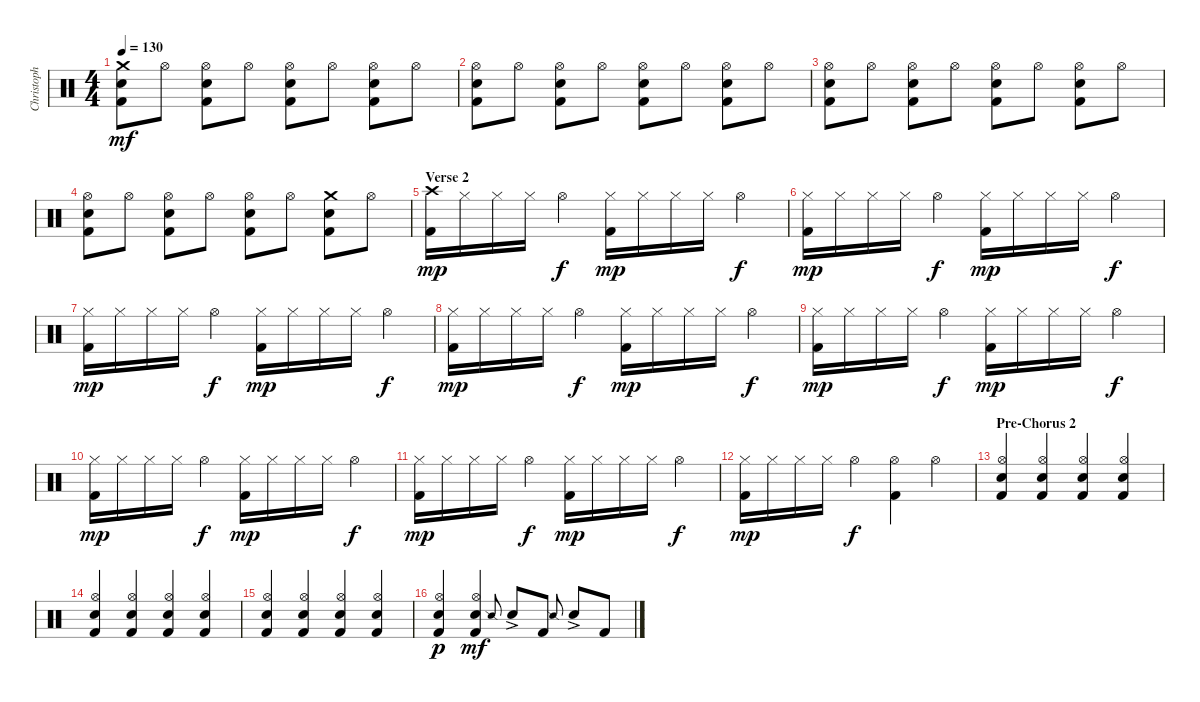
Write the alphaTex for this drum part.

\track ("Christoph Schneider" "Christoph ") {instrument percussion}
\staff {score}
\articulation defaults
\ts (4 4)
\tempo 130
\clef neutral
\ks c
("Crash medium (hit)" "Snare (hit) 2" "Kick (hit) 2").8{dy mf} "Hi-Hat (open)".8 ("Hi-Hat (open)" "Snare (hit) 2" "Kick (hit) 2").8 "Hi-Hat (open)".8 ("Hi-Hat (open)" "Snare (hit) 2" "Kick (hit) 2").8 "Hi-Hat (open)".8 ("Hi-Hat (open)" "Snare (hit) 2" "Kick (hit) 2").8 "Hi-Hat (open)".8 |
("Hi-Hat (open)" "Snare (hit) 2" "Kick (hit) 2").8 "Hi-Hat (open)".8 ("Hi-Hat (open)" "Snare (hit) 2" "Kick (hit) 2").8 "Hi-Hat (open)".8 ("Hi-Hat (open)" "Snare (hit) 2" "Kick (hit) 2").8 "Hi-Hat (open)".8 ("Hi-Hat (open)" "Snare (hit) 2" "Kick (hit) 2").8 "Hi-Hat (open)".8 |
("Hi-Hat (open)" "Snare (hit) 2" "Kick (hit) 2").8 "Hi-Hat (open)".8 ("Hi-Hat (open)" "Snare (hit) 2" "Kick (hit) 2").8 "Hi-Hat (open)".8 ("Hi-Hat (open)" "Snare (hit) 2" "Kick (hit) 2").8 "Hi-Hat (open)".8 ("Hi-Hat (open)" "Snare (hit) 2" "Kick (hit) 2").8 "Hi-Hat (open)".8 |
("Hi-Hat (open)" "Snare (hit) 2" "Kick (hit) 2").8 "Hi-Hat (open)".8 ("Hi-Hat (open)" "Snare (hit) 2" "Kick (hit) 2").8 "Hi-Hat (open)".8 ("Hi-Hat (open)" "Snare (hit) 2" "Kick (hit) 2").8 "Hi-Hat (open)".8 ("Crash medium (hit)" "Snare (hit) 2" "Kick (hit) 2").8 "Hi-Hat (open)".8 |
\section ("" "Verse 2")
("Crash high (hit)" "Kick (hit) 2").16{dy mp} "Hi-Hat (closed)".16 "Hi-Hat (closed)".16 "Hi-Hat (closed)".16 "Hi-Hat (open)".4{dy f} ("Hi-Hat (closed)" "Kick (hit) 2").16{dy mp} "Hi-Hat (closed)".16 "Hi-Hat (closed)".16 "Hi-Hat (closed)".16 "Hi-Hat (open)".4{dy f} |
("Hi-Hat (closed)" "Kick (hit) 2").16{dy mp} "Hi-Hat (closed)".16 "Hi-Hat (closed)".16 "Hi-Hat (closed)".16 "Hi-Hat (open)".4{dy f} ("Hi-Hat (closed)" "Kick (hit) 2").16{dy mp} "Hi-Hat (closed)".16 "Hi-Hat (closed)".16 "Hi-Hat (closed)".16 "Hi-Hat (open)".4{dy f} |
("Hi-Hat (closed)" "Kick (hit) 2").16{dy mp} "Hi-Hat (closed)".16 "Hi-Hat (closed)".16 "Hi-Hat (closed)".16 "Hi-Hat (open)".4{dy f} ("Hi-Hat (closed)" "Kick (hit) 2").16{dy mp} "Hi-Hat (closed)".16 "Hi-Hat (closed)".16 "Hi-Hat (closed)".16 "Hi-Hat (open)".4{dy f} |
("Hi-Hat (closed)" "Kick (hit) 2").16{dy mp} "Hi-Hat (closed)".16 "Hi-Hat (closed)".16 "Hi-Hat (closed)".16 "Hi-Hat (open)".4{dy f} ("Hi-Hat (closed)" "Kick (hit) 2").16{dy mp} "Hi-Hat (closed)".16 "Hi-Hat (closed)".16 "Hi-Hat (closed)".16 "Hi-Hat (open)".4{dy f} |
("Hi-Hat (closed)" "Kick (hit) 2").16{dy mp} "Hi-Hat (closed)".16 "Hi-Hat (closed)".16 "Hi-Hat (closed)".16 "Hi-Hat (open)".4{dy f} ("Hi-Hat (closed)" "Kick (hit) 2").16{dy mp} "Hi-Hat (closed)".16 "Hi-Hat (closed)".16 "Hi-Hat (closed)".16 "Hi-Hat (open)".4{dy f} |
("Hi-Hat (closed)" "Kick (hit) 2").16{dy mp} "Hi-Hat (closed)".16 "Hi-Hat (closed)".16 "Hi-Hat (closed)".16 "Hi-Hat (open)".4{dy f} ("Hi-Hat (closed)" "Kick (hit) 2").16{dy mp} "Hi-Hat (closed)".16 "Hi-Hat (closed)".16 "Hi-Hat (closed)".16 "Hi-Hat (open)".4{dy f} |
("Hi-Hat (closed)" "Kick (hit) 2").16{dy mp} "Hi-Hat (closed)".16 "Hi-Hat (closed)".16 "Hi-Hat (closed)".16 "Hi-Hat (open)".4{dy f} ("Hi-Hat (closed)" "Kick (hit) 2").16{dy mp} "Hi-Hat (closed)".16 "Hi-Hat (closed)".16 "Hi-Hat (closed)".16 "Hi-Hat (open)".4{dy f} |
("Hi-Hat (closed)" "Kick (hit) 2").16{dy mp} "Hi-Hat (closed)".16 "Hi-Hat (closed)".16 "Hi-Hat (closed)".16 "Hi-Hat (open)".4{dy f} ("Hi-Hat (open)" "Kick (hit) 2").4 "Hi-Hat (open)".4 |
\section ("" "Pre-Chorus 2")
("Hi-Hat (open)" "Hand Clap (hit)" "Kick (hit) 2").4 ("Hi-Hat (open)" "Hand Clap (hit)" "Kick (hit) 2").4 ("Hi-Hat (open)" "Hand Clap (hit)" "Kick (hit) 2").4 ("Hi-Hat (open)" "Hand Clap (hit)" "Kick (hit) 2").4 |
("Hi-Hat (open)" "Hand Clap (hit)" "Kick (hit) 2").4 ("Hi-Hat (open)" "Hand Clap (hit)" "Kick (hit) 2").4 ("Hi-Hat (open)" "Hand Clap (hit)" "Kick (hit) 2").4 ("Hi-Hat (open)" "Hand Clap (hit)" "Kick (hit) 2").4 |
("Hi-Hat (open)" "Hand Clap (hit)" "Kick (hit) 2").4 ("Hi-Hat (open)" "Hand Clap (hit)" "Kick (hit) 2").4 ("Hi-Hat (open)" "Hand Clap (hit)" "Kick (hit) 2").4 ("Hi-Hat (open)" "Hand Clap (hit)" "Kick (hit) 2").4 |
("Hi-Hat (open)" "Hand Clap (hit)" "Kick (hit) 2").4{dy p} ("Hi-Hat (open)" "Hand Clap (hit)" "Kick (hit) 2").4{dy mf} "Snare (side stick) 2".8{gr onbeat} "Snare (hit) 2"{ac}.8 "Kick (hit) 2".8 "Snare (side stick) 2".8{gr onbeat} "Snare (hit) 2"{ac}.8 "Kick (hit) 2".8
